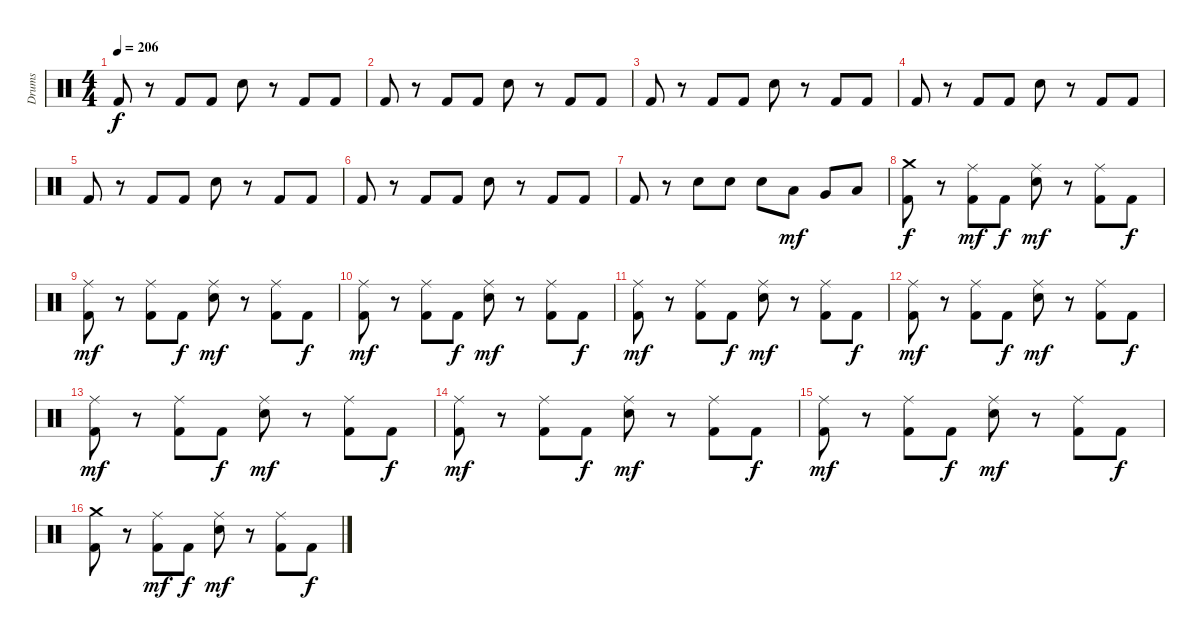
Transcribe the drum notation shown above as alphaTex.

\track ("Drums" "Drums") {instrument percussion}
\staff {score}
\articulation defaults
\ts (4 4)
\tempo 206
\clef neutral
\ks c "Kick (hit) 2".8{dy f}
r.8 "Kick (hit) 2".8 "Kick (hit) 2".8 "Snare (hit) 2".8 r.8 "Kick (hit) 2".8 "Kick (hit) 2".8 |
"Kick (hit) 2".8 r.8 "Kick (hit) 2".8 "Kick (hit) 2".8 "Snare (hit) 2".8 r.8 "Kick (hit) 2".8 "Kick (hit) 2".8 |
"Kick (hit) 2".8 r.8 "Kick (hit) 2".8 "Kick (hit) 2".8 "Snare (hit) 2".8 r.8 "Kick (hit) 2".8 "Kick (hit) 2".8 |
"Kick (hit) 2".8 r.8 "Kick (hit) 2".8 "Kick (hit) 2".8 "Snare (hit) 2".8 r.8 "Kick (hit) 2".8 "Kick (hit) 2".8 |
"Kick (hit) 2".8 r.8 "Kick (hit) 2".8 "Kick (hit) 2".8 "Snare (hit) 2".8 r.8 "Kick (hit) 2".8 "Kick (hit) 2".8 |
"Kick (hit) 2".8 r.8 "Kick (hit) 2".8 "Kick (hit) 2".8 "Snare (hit) 2".8 r.8 "Kick (hit) 2".8 "Kick (hit) 2".8 |
"Kick (hit) 2".8 r.8 "Snare (hit) 2".8 "Snare (hit) 2".8 "Snare (hit) 2".8 "Low Tom (hit)".8{dy mf} "Very Low Tom (hit)".8 "Low Floor Tom (hit)".8 |
("Crash medium (hit)" "Kick (hit) 2").8{dy f} r.8 ("Ride (middle)" "Kick (hit) 2").8{dy mf} "Kick (hit) 2".8{dy f} ("Ride (middle)" "Snare (hit) 2").8{dy mf} r.8 ("Ride (middle)" "Kick (hit) 2").8 "Kick (hit) 2".8{dy f} |
("Ride (middle)" "Kick (hit) 2").8{dy mf} r.8 ("Ride (middle)" "Kick (hit) 2").8 "Kick (hit) 2".8{dy f} ("Ride (middle)" "Snare (hit) 2").8{dy mf} r.8 ("Ride (middle)" "Kick (hit) 2").8 "Kick (hit) 2".8{dy f} |
("Ride (middle)" "Kick (hit) 2").8{dy mf} r.8 ("Ride (middle)" "Kick (hit) 2").8 "Kick (hit) 2".8{dy f} ("Ride (middle)" "Snare (hit) 2").8{dy mf} r.8 ("Ride (middle)" "Kick (hit) 2").8 "Kick (hit) 2".8{dy f} |
("Ride (middle)" "Kick (hit) 2").8{dy mf} r.8 ("Ride (middle)" "Kick (hit) 2").8 "Kick (hit) 2".8{dy f} ("Ride (middle)" "Snare (hit) 2").8{dy mf} r.8 ("Ride (middle)" "Kick (hit) 2").8 "Kick (hit) 2".8{dy f} |
("Ride (middle)" "Kick (hit) 2").8{dy mf} r.8 ("Ride (middle)" "Kick (hit) 2").8 "Kick (hit) 2".8{dy f} ("Ride (middle)" "Snare (hit) 2").8{dy mf} r.8 ("Ride (middle)" "Kick (hit) 2").8 "Kick (hit) 2".8{dy f} |
("Ride (middle)" "Kick (hit) 2").8{dy mf} r.8 ("Ride (middle)" "Kick (hit) 2").8 "Kick (hit) 2".8{dy f} ("Ride (middle)" "Snare (hit) 2").8{dy mf} r.8 ("Ride (middle)" "Kick (hit) 2").8 "Kick (hit) 2".8{dy f} |
("Ride (middle)" "Kick (hit) 2").8{dy mf} r.8 ("Ride (middle)" "Kick (hit) 2").8 "Kick (hit) 2".8{dy f} ("Ride (middle)" "Snare (hit) 2").8{dy mf} r.8 ("Ride (middle)" "Kick (hit) 2").8 "Kick (hit) 2".8{dy f} |
("Ride (middle)" "Kick (hit) 2").8{dy mf} r.8 ("Ride (middle)" "Kick (hit) 2").8 "Kick (hit) 2".8{dy f} ("Ride (middle)" "Snare (hit) 2").8{dy mf} r.8 ("Ride (middle)" "Kick (hit) 2").8 "Kick (hit) 2".8{dy f} |
("Crash medium (hit)" "Kick (hit) 2").8 r.8 ("Ride (middle)" "Kick (hit) 2").8{dy mf} "Kick (hit) 2".8{dy f} ("Ride (middle)" "Snare (hit) 2").8{dy mf} r.8 ("Ride (middle)" "Kick (hit) 2").8 "Kick (hit) 2".8{dy f}
